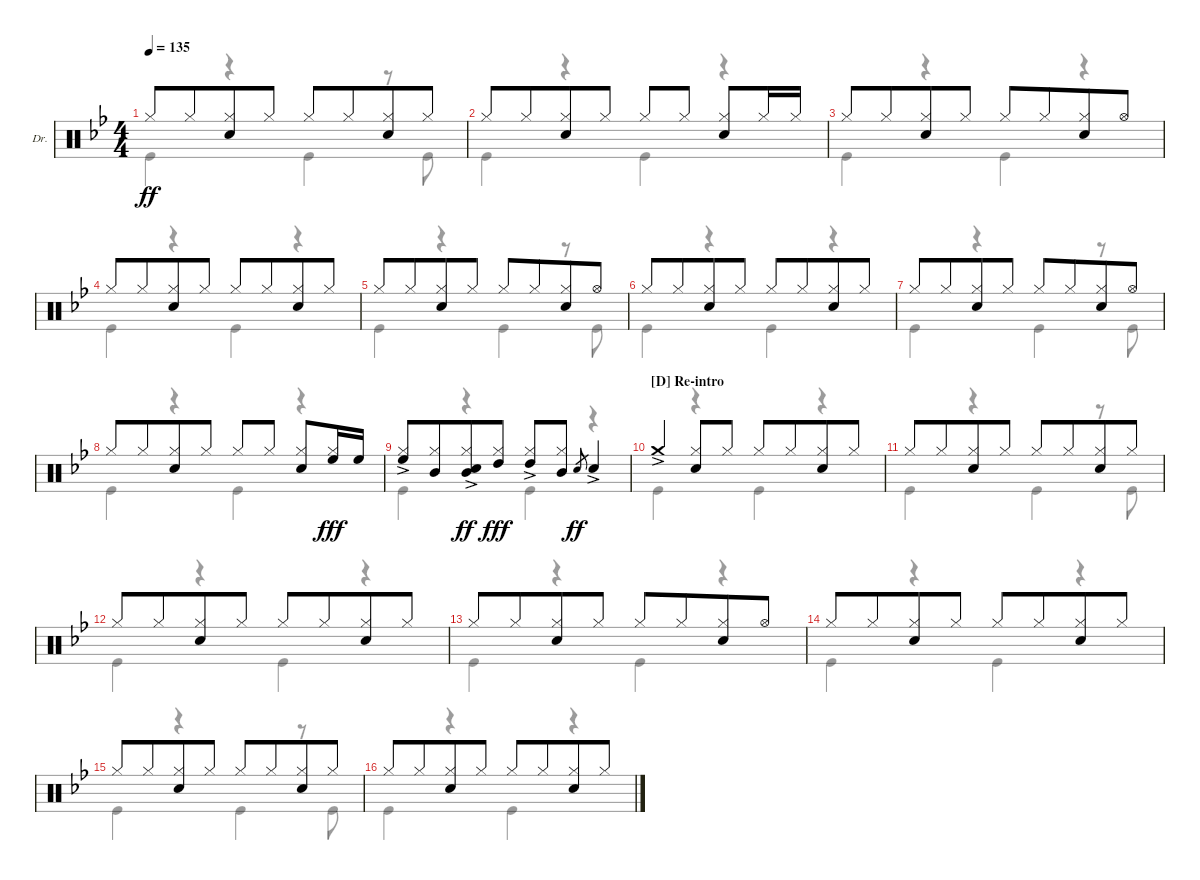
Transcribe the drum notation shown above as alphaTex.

\defaultSystemsLayout 4
\bracketExtendMode groupsimilarinstruments
\firstSystemTrackNameOrientation horizontal
\otherSystemsTrackNameOrientation horizontal
\track ("Drums" "Dr.") {instrument percussion}
\staff {score}
\articulation defaults
\voice
\ts (4 4)
\tempo 135
\clef neutral
\ks bb "Hi-Hat (closed)".8{dy ff beam merge} "Hi-Hat (closed)".8{beam merge}
("Hi-Hat (closed)" "Snare (hit) 2").8{beam merge} "Hi-Hat (closed)".8 "Hi-Hat (closed)".8{beam merge} "Hi-Hat (closed)".8{beam merge} ("Hi-Hat (closed)" "Snare (hit) 2").8{beam merge} "Hi-Hat (closed)".8 |
"Hi-Hat (closed)".8{beam merge} "Hi-Hat (closed)".8{beam merge} ("Hi-Hat (closed)" "Snare (hit) 2").8{beam merge} "Hi-Hat (closed)".8 "Hi-Hat (closed)".8{beam merge} "Hi-Hat (closed)".8{beam split} ("Hi-Hat (closed)" "Snare (hit) 2").8{beam merge} "Hi-Hat (closed)".16 "Hi-Hat (closed)".16 |
"Hi-Hat (closed)".8{beam merge} "Hi-Hat (closed)".8{beam merge} ("Hi-Hat (closed)" "Snare (hit) 2").8{beam merge} "Hi-Hat (closed)".8 "Hi-Hat (closed)".8{beam merge} "Hi-Hat (closed)".8{beam merge} ("Hi-Hat (closed)" "Snare (hit) 2").8{beam merge} "Hi-Hat (open)".8 |
"Hi-Hat (closed)".8{beam merge} "Hi-Hat (closed)".8{beam merge} ("Hi-Hat (closed)" "Snare (hit) 2").8{beam merge} "Hi-Hat (closed)".8 "Hi-Hat (closed)".8{beam merge} "Hi-Hat (closed)".8{beam merge} ("Hi-Hat (closed)" "Snare (hit) 2").8{beam merge} "Hi-Hat (closed)".8 |
"Hi-Hat (closed)".8{beam merge} "Hi-Hat (closed)".8{beam merge} ("Hi-Hat (closed)" "Snare (hit) 2").8{beam merge} "Hi-Hat (closed)".8 "Hi-Hat (closed)".8{beam merge} "Hi-Hat (closed)".8{beam merge} ("Hi-Hat (closed)" "Snare (hit) 2").8{beam merge} "Hi-Hat (open)".8 |
"Hi-Hat (closed)".8{beam merge} "Hi-Hat (closed)".8{beam merge} ("Hi-Hat (closed)" "Snare (hit) 2").8{beam merge} "Hi-Hat (closed)".8 "Hi-Hat (closed)".8{beam merge} "Hi-Hat (closed)".8{beam merge} ("Hi-Hat (closed)" "Snare (hit) 2").8{beam merge} "Hi-Hat (closed)".8 |
"Hi-Hat (closed)".8{beam merge} "Hi-Hat (closed)".8{beam merge} ("Hi-Hat (closed)" "Snare (hit) 2").8{beam merge} "Hi-Hat (closed)".8 "Hi-Hat (closed)".8{beam merge} "Hi-Hat (closed)".8{beam merge} ("Hi-Hat (closed)" "Snare (hit) 2").8{beam merge} "Hi-Hat (open)".8 |
"Hi-Hat (closed)".8{beam merge} "Hi-Hat (closed)".8{beam merge} ("Hi-Hat (closed)" "Snare (hit) 2").8{beam merge} "Hi-Hat (closed)".8 "Hi-Hat (closed)".8{beam merge} "Hi-Hat (closed)".8{beam split} ("Hi-Hat (closed)" "Snare (hit) 2").8{beam merge} ("Hi-Hat (closed)" "High Floor Tom (hit)").16{dy fff beam merge} "High Floor Tom (hit)".16 |
("High Floor Tom (hit)"{ac} "Hi-Hat (closed)").8 ("Mid Tom (hit)" "Hi-Hat (closed)").8{beam merge} ("Mid Tom (hit)" "Snare (hit) 2"{ac} "Hi-Hat (closed)").8{dy ff} ("High Tom (hit)" "Hi-Hat (closed)").8{dy fff} ("High Tom (hit)"{ac} "Hi-Hat (closed)").8 ("Mid Tom (hit)" "Hi-Hat (closed)").8 "Snare (hit) 2".8{gr dy ff} "Snare (hit) 2"{ac}.4 |
\section ("D" "Re-intro")
"Crash medium (hit)"{ac}.4{beam merge} ("Hi-Hat (closed)" "Snare (hit) 2").8{beam merge} "Hi-Hat (closed)".8 "Hi-Hat (closed)".8{beam merge} "Hi-Hat (closed)".8{beam merge} ("Hi-Hat (closed)" "Snare (hit) 2").8{beam merge} "Hi-Hat (closed)".8 |
"Hi-Hat (closed)".8{beam merge} "Hi-Hat (closed)".8{beam merge} ("Hi-Hat (closed)" "Snare (hit) 2").8{beam merge} "Hi-Hat (closed)".8 "Hi-Hat (closed)".8{beam merge} "Hi-Hat (closed)".8{beam merge} ("Hi-Hat (closed)" "Snare (hit) 2").8{beam merge} "Hi-Hat (closed)".8 |
"Hi-Hat (closed)".8{beam merge} "Hi-Hat (closed)".8{beam merge} ("Hi-Hat (closed)" "Snare (hit) 2").8{beam merge} "Hi-Hat (closed)".8 "Hi-Hat (closed)".8{beam merge} "Hi-Hat (closed)".8{beam merge} ("Hi-Hat (closed)" "Snare (hit) 2").8{beam merge} "Hi-Hat (closed)".8 |
"Hi-Hat (closed)".8{beam merge} "Hi-Hat (closed)".8{beam merge} ("Hi-Hat (closed)" "Snare (hit) 2").8{beam merge} "Hi-Hat (closed)".8 "Hi-Hat (closed)".8{beam merge} "Hi-Hat (closed)".8{beam merge} ("Hi-Hat (closed)" "Snare (hit) 2").8{beam merge} "Hi-Hat (open)".8 |
"Hi-Hat (closed)".8{beam merge} "Hi-Hat (closed)".8{beam merge} ("Hi-Hat (closed)" "Snare (hit) 2").8{beam merge} "Hi-Hat (closed)".8 "Hi-Hat (closed)".8{beam merge} "Hi-Hat (closed)".8{beam merge} ("Hi-Hat (closed)" "Snare (hit) 2").8{beam merge} "Hi-Hat (closed)".8 |
"Hi-Hat (closed)".8{beam merge} "Hi-Hat (closed)".8{beam merge} ("Hi-Hat (closed)" "Snare (hit) 2").8{beam merge} "Hi-Hat (closed)".8 "Hi-Hat (closed)".8{beam merge} "Hi-Hat (closed)".8{beam merge} ("Hi-Hat (closed)" "Snare (hit) 2").8{beam merge} "Hi-Hat (closed)".8 |
"Hi-Hat (closed)".8{beam merge} "Hi-Hat (closed)".8{beam merge} ("Hi-Hat (closed)" "Snare (hit) 2").8{beam merge} "Hi-Hat (closed)".8 "Hi-Hat (closed)".8{beam merge} "Hi-Hat (closed)".8{beam merge} ("Hi-Hat (closed)" "Snare (hit) 2").8{beam merge} "Hi-Hat (closed)".8
\voice
\clef neutral
\ottava regular
\simile none
\ks bb "Kick (hit)".4{dy ff}
r.4 "Kick (hit)".4 r.8 "Kick (hit)".8 |
"Kick (hit)".4 r.4 "Kick (hit)".4 r.4 |
"Kick (hit)".4 r.4 "Kick (hit)".4 r.4 |
"Kick (hit)".4 r.4 "Kick (hit)".4 r.4 |
"Kick (hit)".4 r.4 "Kick (hit)".4 r.8 "Kick (hit)".8 |
"Kick (hit)".4 r.4 "Kick (hit)".4 r.4 |
"Kick (hit)".4 r.4 "Kick (hit)".4 r.8 "Kick (hit)".8 |
"Kick (hit)".4 r.4 "Kick (hit)".4 r.4 |
"Kick (hit)".4 r.4 "Kick (hit)".4 r.4 |
"Kick (hit)".4 r.4 "Kick (hit)".4 r.4 |
"Kick (hit)".4 r.4 "Kick (hit)".4 r.8 "Kick (hit)".8 |
"Kick (hit)".4 r.4 "Kick (hit)".4 r.4 |
"Kick (hit)".4 r.4 "Kick (hit)".4 r.4 |
"Kick (hit)".4 r.4 "Kick (hit)".4 r.4 |
"Kick (hit)".4 r.4 "Kick (hit)".4 r.8 "Kick (hit)".8 |
"Kick (hit)".4 r.4 "Kick (hit)".4 r.4
